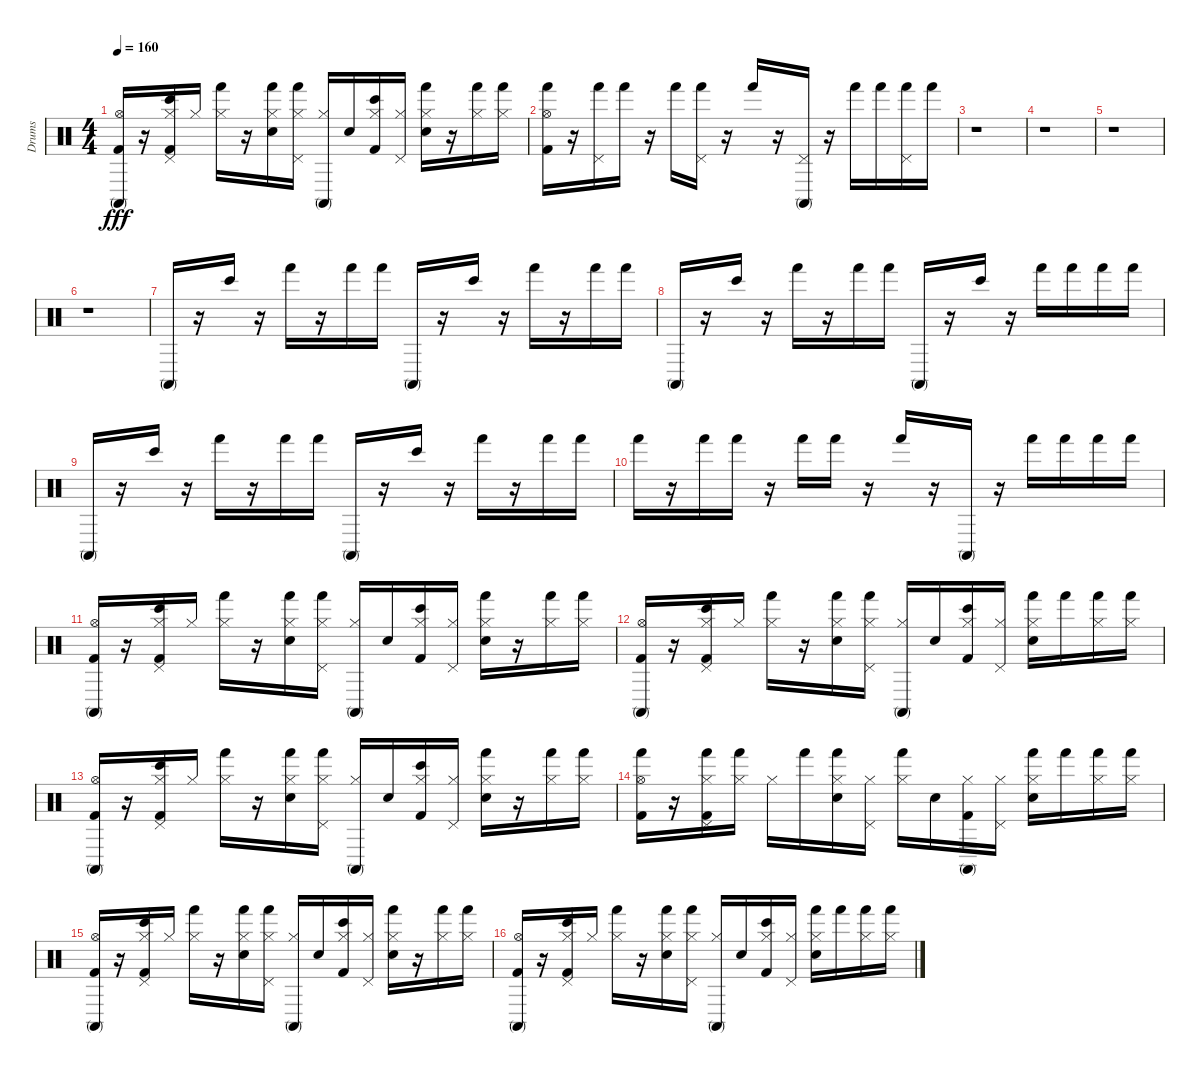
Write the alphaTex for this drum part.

\track ("Drums" "Drums") {instrument percussion}
\staff {score}
\articulation defaults
\ts (4 4)
\tempo 160
\clef neutral
\ks c
("Kick (hit) 2" "Hi-Hat (open)" "Conga high (mute)").16{dy fff} r.16 ("Kick (hit) 2" "Hi-Hat (closed)" "Bongo High (hit)" "Pedal Hi-Hat (hit)").16 "Hi-Hat (closed)".16 ("Hand (hit)" "Hi-Hat (closed)").16 r.16 ("Electric Snare (hit)" "Hi-Hat (closed)" "Hand (hit)").16 ("Pedal Hi-Hat (hit)" "Hand (hit)" "Hi-Hat (closed)").16 ("Hi-Hat (closed)" "Conga high (mute)").16 "Electric Snare (hit)".16 ("Bongo High (hit)" "Kick (hit) 2" "Hi-Hat (closed)").16 ("Pedal Hi-Hat (hit)" "Hi-Hat (closed)").16 ("Hand (hit)" "Hi-Hat (closed)" "Electric Snare (hit)").16 r.16 ("Hi-Hat (closed)" "Hand (hit)").16 ("Hand (hit)" "Hi-Hat (closed)").16 |
("Kick (hit) 2" "Hand (hit)" "Hi-Hat (open)").16 r.16 ("Hand (hit)" "Pedal Hi-Hat (hit)").16 "Hand (hit)".16 r.16 "Hand (hit)".16 ("Hand (hit)" "Pedal Hi-Hat (hit)").16 r.16 "Hand (hit)".16 r.16 ("Pedal Hi-Hat (hit)" "Conga high (mute)").16 r.16 "Hand (hit)".16 "Hand (hit)".16 ("Pedal Hi-Hat (hit)" "Hand (hit)").16 "Hand (hit)".16 |
r.1 |
r.1 |
r.1 |
r.1 |
"Conga high (mute)".16 r.16 "Bongo High (hit)".16 r.16 "Hand (hit)".16 r.16 "Hand (hit)".16 "Hand (hit)".16 "Conga high (mute)".16 r.16 "Bongo High (hit)".16 r.16 "Hand (hit)".16 r.16 "Hand (hit)".16 "Hand (hit)".16 |
"Conga high (mute)".16 r.16 "Bongo High (hit)".16 r.16 "Hand (hit)".16 r.16 "Hand (hit)".16 "Hand (hit)".16 "Conga high (mute)".16 r.16 "Bongo High (hit)".16 r.16 "Hand (hit)".16 "Hand (hit)".16 "Hand (hit)".16 "Hand (hit)".16 |
"Conga high (mute)".16 r.16 "Bongo High (hit)".16 r.16 "Hand (hit)".16 r.16 "Hand (hit)".16 "Hand (hit)".16 "Conga high (mute)".16 r.16 "Bongo High (hit)".16 r.16 "Hand (hit)".16 r.16 "Hand (hit)".16 "Hand (hit)".16 |
"Hand (hit)".16 r.16 "Hand (hit)".16 "Hand (hit)".16 r.16 "Hand (hit)".16 "Hand (hit)".16 r.16 "Hand (hit)".16 r.16 "Conga high (mute)".16 r.16 "Hand (hit)".16 "Hand (hit)".16 "Hand (hit)".16 "Hand (hit)".16 |
("Kick (hit) 2" "Hi-Hat (open)" "Conga high (mute)").16 r.16 ("Pedal Hi-Hat (hit)" "Kick (hit) 2" "Hi-Hat (closed)" "Bongo High (hit)").16 "Hi-Hat (closed)".16 ("Hi-Hat (closed)" "Hand (hit)").16 r.16 ("Electric Snare (hit)" "Hi-Hat (closed)" "Hand (hit)").16 ("Pedal Hi-Hat (hit)" "Hi-Hat (closed)" "Hand (hit)").16 ("Conga high (mute)" "Hi-Hat (closed)").16 "Electric Snare (hit)".16 ("Kick (hit) 2" "Bongo High (hit)" "Hi-Hat (closed)").16 ("Hi-Hat (closed)" "Pedal Hi-Hat (hit)").16 ("Hi-Hat (closed)" "Hand (hit)" "Electric Snare (hit)").16 r.16 ("Hi-Hat (closed)" "Hand (hit)").16 ("Hand (hit)" "Hi-Hat (closed)").16 |
("Hi-Hat (open)" "Conga high (mute)" "Kick (hit) 2").16 r.16 ("Pedal Hi-Hat (hit)" "Hi-Hat (closed)" "Kick (hit) 2" "Bongo High (hit)").16 "Hi-Hat (closed)".16 ("Hand (hit)" "Hi-Hat (closed)").16 r.16 ("Electric Snare (hit)" "Hand (hit)" "Hi-Hat (closed)").16 ("Pedal Hi-Hat (hit)" "Hand (hit)" "Hi-Hat (closed)").16 ("Hi-Hat (closed)" "Conga high (mute)").16 "Electric Snare (hit)".16 ("Kick (hit) 2" "Bongo High (hit)" "Hi-Hat (closed)").16 ("Pedal Hi-Hat (hit)" "Hi-Hat (closed)").16 ("Hi-Hat (closed)" "Hand (hit)" "Electric Snare (hit)").16 "Hand (hit)".16 ("Hand (hit)" "Hi-Hat (closed)").16 ("Hi-Hat (closed)" "Hand (hit)").16 |
("Kick (hit) 2" "Conga high (mute)" "Hi-Hat (open)").16 r.16 ("Hi-Hat (closed)" "Pedal Hi-Hat (hit)" "Bongo High (hit)" "Kick (hit) 2").16 "Hi-Hat (closed)".16 ("Hi-Hat (closed)" "Hand (hit)").16 r.16 ("Electric Snare (hit)" "Hi-Hat (closed)" "Hand (hit)").16 ("Hi-Hat (closed)" "Hand (hit)" "Pedal Hi-Hat (hit)").16 ("Hi-Hat (closed)" "Conga high (mute)").16 "Electric Snare (hit)".16 ("Kick (hit) 2" "Hi-Hat (closed)" "Bongo High (hit)").16 ("Pedal Hi-Hat (hit)" "Hi-Hat (closed)").16 ("Hi-Hat (closed)" "Electric Snare (hit)" "Hand (hit)").16 r.16 ("Hi-Hat (closed)" "Hand (hit)").16 ("Hi-Hat (closed)" "Hand (hit)").16 |
("Hand (hit)" "Kick (hit) 2" "Hi-Hat (open)").16 r.16 ("Pedal Hi-Hat (hit)" "Kick (hit) 2" "Hand (hit)" "Hi-Hat (closed)").16 ("Hi-Hat (closed)" "Hand (hit)").16 "Hi-Hat (closed)".16 "Hand (hit)".16 ("Hand (hit)" "Hi-Hat (closed)" "Electric Snare (hit)").16 ("Hi-Hat (closed)" "Pedal Hi-Hat (hit)").16 ("Hand (hit)" "Hi-Hat (closed)").16 "Electric Snare (hit)".16 ("Kick (hit) 2" "Hi-Hat (closed)" "Conga high (mute)").16 ("Pedal Hi-Hat (hit)" "Hi-Hat (closed)").16 ("Hand (hit)" "Hi-Hat (closed)" "Electric Snare (hit)").16 "Hand (hit)".16 ("Hand (hit)" "Hi-Hat (closed)").16 ("Hi-Hat (closed)" "Hand (hit)").16 |
("Hi-Hat (open)" "Kick (hit) 2" "Conga high (mute)").16 r.16 ("Pedal Hi-Hat (hit)" "Bongo High (hit)" "Kick (hit) 2" "Hi-Hat (closed)").16 "Hi-Hat (closed)".16 ("Hand (hit)" "Hi-Hat (closed)").16 r.16 ("Hand (hit)" "Electric Snare (hit)" "Hi-Hat (closed)").16 ("Hand (hit)" "Pedal Hi-Hat (hit)" "Hi-Hat (closed)").16 ("Hi-Hat (closed)" "Conga high (mute)").16 "Electric Snare (hit)".16 ("Bongo High (hit)" "Kick (hit) 2" "Hi-Hat (closed)").16 ("Hi-Hat (closed)" "Pedal Hi-Hat (hit)").16 ("Electric Snare (hit)" "Hand (hit)" "Hi-Hat (closed)").16 r.16 ("Hi-Hat (closed)" "Hand (hit)").16 ("Hi-Hat (closed)" "Hand (hit)").16 |
("Hi-Hat (open)" "Conga high (mute)" "Kick (hit) 2").16 r.16 ("Bongo High (hit)" "Pedal Hi-Hat (hit)" "Kick (hit) 2" "Hi-Hat (closed)").16 "Hi-Hat (closed)".16 ("Hand (hit)" "Hi-Hat (closed)").16 r.16 ("Hi-Hat (closed)" "Electric Snare (hit)" "Hand (hit)").16 ("Hand (hit)" "Pedal Hi-Hat (hit)" "Hi-Hat (closed)").16 ("Hi-Hat (closed)" "Conga high (mute)").16 "Electric Snare (hit)".16 ("Hi-Hat (closed)" "Kick (hit) 2" "Bongo High (hit)").16 ("Pedal Hi-Hat (hit)" "Hi-Hat (closed)").16 ("Hand (hit)" "Electric Snare (hit)" "Hi-Hat (closed)").16 "Hand (hit)".16 ("Hi-Hat (closed)" "Hand (hit)").16 ("Hand (hit)" "Hi-Hat (closed)").16
